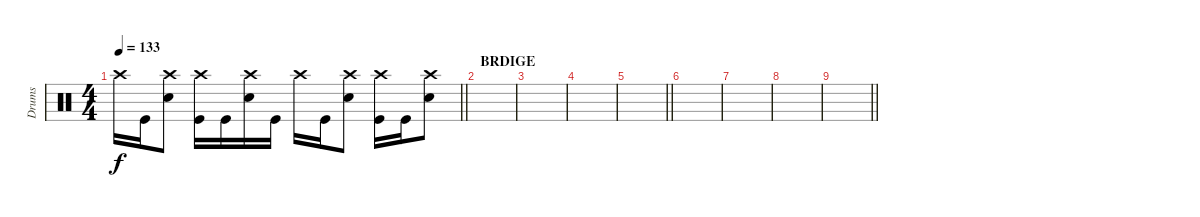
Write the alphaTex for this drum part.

\track ("Drums" "Drums") {instrument percussion}
\staff
\articulation defaults
\ts (4 4)
\tempo 133
\clef neutral
\barLineRight lightlight
\ks c "Crash high (hit)".16{dy f} "Kick (hit)".16
("Crash high (hit)" "Electric Snare (hit)").8 ("Crash high (hit)" "Kick (hit)").16 "Kick (hit)".16 ("Crash high (hit)" "Electric Snare (hit)").16 "Kick (hit)".16 "Crash high (hit)".16 "Kick (hit)".16 ("Crash high (hit)" "Electric Snare (hit)").8 ("Crash high (hit)" "Kick (hit)").16 "Kick (hit)".16 ("Crash high (hit)" "Electric Snare (hit)").8 |
\section ("" "BRDIGE")
|
|
|
\barLineRight lightlight
|
|
|
|
\barLineRight lightlight
